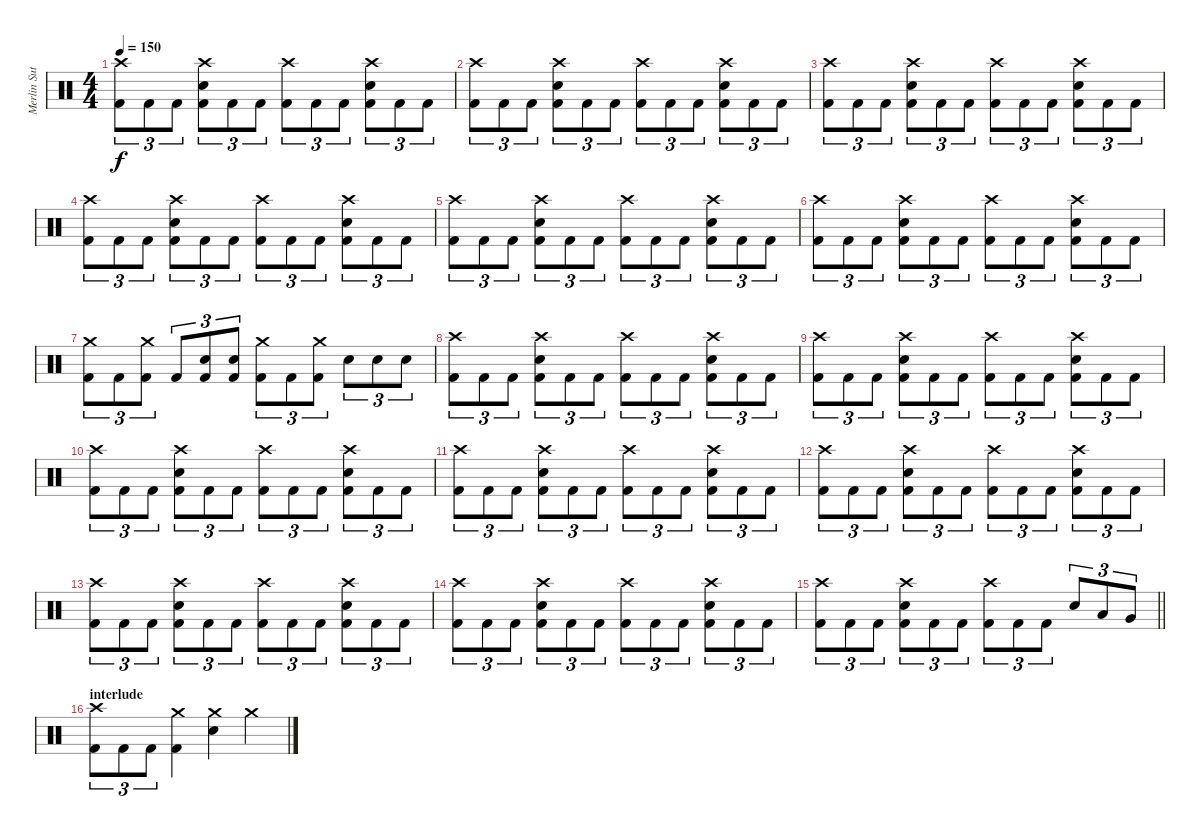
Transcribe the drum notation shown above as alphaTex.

\track ("Merlin Sutter" "Merlin Sut") {instrument percussion}
\staff {score}
\articulation defaults
\ts (4 4)
\tempo 150
\clef neutral
\ks c
("Crash high (hit)" "Kick (hit) 2").8{tu (3 2) dy f} "Kick (hit) 2".8{tu (3 2)} "Kick (hit) 2".8{tu (3 2)} ("Crash high (hit)" "Snare (hit) 2" "Kick (hit) 2").8{tu (3 2)} "Kick (hit) 2".8{tu (3 2)} "Kick (hit) 2".8{tu (3 2)} ("Crash high (hit)" "Kick (hit) 2").8{tu (3 2)} "Kick (hit) 2".8{tu (3 2)} "Kick (hit) 2".8{tu (3 2)} ("Crash high (hit)" "Snare (hit) 2" "Kick (hit) 2").8{tu (3 2)} "Kick (hit) 2".8{tu (3 2)} "Kick (hit) 2".8{tu (3 2)} |
("Crash high (hit)" "Kick (hit) 2").8{tu (3 2)} "Kick (hit) 2".8{tu (3 2)} "Kick (hit) 2".8{tu (3 2)} ("Crash high (hit)" "Snare (hit) 2" "Kick (hit) 2").8{tu (3 2)} "Kick (hit) 2".8{tu (3 2)} "Kick (hit) 2".8{tu (3 2)} ("Crash high (hit)" "Kick (hit) 2").8{tu (3 2)} "Kick (hit) 2".8{tu (3 2)} "Kick (hit) 2".8{tu (3 2)} ("Crash high (hit)" "Snare (hit) 2" "Kick (hit) 2").8{tu (3 2)} "Kick (hit) 2".8{tu (3 2)} "Kick (hit) 2".8{tu (3 2)} |
("Crash high (hit)" "Kick (hit) 2").8{tu (3 2)} "Kick (hit) 2".8{tu (3 2)} "Kick (hit) 2".8{tu (3 2)} ("Crash high (hit)" "Snare (hit) 2" "Kick (hit) 2").8{tu (3 2)} "Kick (hit) 2".8{tu (3 2)} "Kick (hit) 2".8{tu (3 2)} ("Crash high (hit)" "Kick (hit) 2").8{tu (3 2)} "Kick (hit) 2".8{tu (3 2)} "Kick (hit) 2".8{tu (3 2)} ("Crash high (hit)" "Snare (hit) 2" "Kick (hit) 2").8{tu (3 2)} "Kick (hit) 2".8{tu (3 2)} "Kick (hit) 2".8{tu (3 2)} |
("Crash high (hit)" "Kick (hit) 2").8{tu (3 2)} "Kick (hit) 2".8{tu (3 2)} "Kick (hit) 2".8{tu (3 2)} ("Crash high (hit)" "Snare (hit) 2" "Kick (hit) 2").8{tu (3 2)} "Kick (hit) 2".8{tu (3 2)} "Kick (hit) 2".8{tu (3 2)} ("Crash high (hit)" "Kick (hit) 2").8{tu (3 2)} "Kick (hit) 2".8{tu (3 2)} "Kick (hit) 2".8{tu (3 2)} ("Crash high (hit)" "Snare (hit) 2" "Kick (hit) 2").8{tu (3 2)} "Kick (hit) 2".8{tu (3 2)} "Kick (hit) 2".8{tu (3 2)} |
("Crash high (hit)" "Kick (hit) 2").8{tu (3 2)} "Kick (hit) 2".8{tu (3 2)} "Kick (hit) 2".8{tu (3 2)} ("Crash high (hit)" "Snare (hit) 2" "Kick (hit) 2").8{tu (3 2)} "Kick (hit) 2".8{tu (3 2)} "Kick (hit) 2".8{tu (3 2)} ("Crash high (hit)" "Kick (hit) 2").8{tu (3 2)} "Kick (hit) 2".8{tu (3 2)} "Kick (hit) 2".8{tu (3 2)} ("Crash high (hit)" "Snare (hit) 2" "Kick (hit) 2").8{tu (3 2)} "Kick (hit) 2".8{tu (3 2)} "Kick (hit) 2".8{tu (3 2)} |
("Crash high (hit)" "Kick (hit) 2").8{tu (3 2)} "Kick (hit) 2".8{tu (3 2)} "Kick (hit) 2".8{tu (3 2)} ("Crash high (hit)" "Snare (hit) 2" "Kick (hit) 2").8{tu (3 2)} "Kick (hit) 2".8{tu (3 2)} "Kick (hit) 2".8{tu (3 2)} ("Crash high (hit)" "Kick (hit) 2").8{tu (3 2)} "Kick (hit) 2".8{tu (3 2)} "Kick (hit) 2".8{tu (3 2)} ("Crash high (hit)" "Snare (hit) 2" "Kick (hit) 2").8{tu (3 2)} "Kick (hit) 2".8{tu (3 2)} "Kick (hit) 2".8{tu (3 2)} |
("Crash medium (hit)" "Kick (hit) 2").8{tu (3 2)} "Kick (hit) 2".8{tu (3 2)} ("Crash medium (hit)" "Kick (hit) 2").8{tu (3 2)} "Kick (hit) 2".8{tu (3 2)} ("Snare (hit) 2" "Kick (hit) 2").8{tu (3 2)} ("Snare (hit) 2" "Kick (hit) 2").8{tu (3 2)} ("Crash medium (hit)" "Kick (hit) 2").8{tu (3 2)} "Kick (hit) 2".8{tu (3 2)} ("Crash medium (hit)" "Kick (hit) 2").8{tu (3 2)} "Snare (hit) 2".8{tu (3 2)} "Snare (hit) 2".8{tu (3 2)} "Snare (hit) 2".8{tu (3 2)} |
("Crash high (hit)" "Kick (hit) 2").8{tu (3 2)} "Kick (hit) 2".8{tu (3 2)} "Kick (hit) 2".8{tu (3 2)} ("Crash high (hit)" "Snare (hit) 2" "Kick (hit) 2").8{tu (3 2)} "Kick (hit) 2".8{tu (3 2)} "Kick (hit) 2".8{tu (3 2)} ("Crash high (hit)" "Kick (hit) 2").8{tu (3 2)} "Kick (hit) 2".8{tu (3 2)} "Kick (hit) 2".8{tu (3 2)} ("Crash high (hit)" "Snare (hit) 2" "Kick (hit) 2").8{tu (3 2)} "Kick (hit) 2".8{tu (3 2)} "Kick (hit) 2".8{tu (3 2)} |
("Crash high (hit)" "Kick (hit) 2").8{tu (3 2)} "Kick (hit) 2".8{tu (3 2)} "Kick (hit) 2".8{tu (3 2)} ("Crash high (hit)" "Snare (hit) 2" "Kick (hit) 2").8{tu (3 2)} "Kick (hit) 2".8{tu (3 2)} "Kick (hit) 2".8{tu (3 2)} ("Crash high (hit)" "Kick (hit) 2").8{tu (3 2)} "Kick (hit) 2".8{tu (3 2)} "Kick (hit) 2".8{tu (3 2)} ("Crash high (hit)" "Snare (hit) 2" "Kick (hit) 2").8{tu (3 2)} "Kick (hit) 2".8{tu (3 2)} "Kick (hit) 2".8{tu (3 2)} |
("Crash high (hit)" "Kick (hit) 2").8{tu (3 2)} "Kick (hit) 2".8{tu (3 2)} "Kick (hit) 2".8{tu (3 2)} ("Crash high (hit)" "Snare (hit) 2" "Kick (hit) 2").8{tu (3 2)} "Kick (hit) 2".8{tu (3 2)} "Kick (hit) 2".8{tu (3 2)} ("Crash high (hit)" "Kick (hit) 2").8{tu (3 2)} "Kick (hit) 2".8{tu (3 2)} "Kick (hit) 2".8{tu (3 2)} ("Crash high (hit)" "Snare (hit) 2" "Kick (hit) 2").8{tu (3 2)} "Kick (hit) 2".8{tu (3 2)} "Kick (hit) 2".8{tu (3 2)} |
("Crash high (hit)" "Kick (hit) 2").8{tu (3 2)} "Kick (hit) 2".8{tu (3 2)} "Kick (hit) 2".8{tu (3 2)} ("Crash high (hit)" "Snare (hit) 2" "Kick (hit) 2").8{tu (3 2)} "Kick (hit) 2".8{tu (3 2)} "Kick (hit) 2".8{tu (3 2)} ("Crash high (hit)" "Kick (hit) 2").8{tu (3 2)} "Kick (hit) 2".8{tu (3 2)} "Kick (hit) 2".8{tu (3 2)} ("Crash high (hit)" "Snare (hit) 2" "Kick (hit) 2").8{tu (3 2)} "Kick (hit) 2".8{tu (3 2)} "Kick (hit) 2".8{tu (3 2)} |
("Crash high (hit)" "Kick (hit) 2").8{tu (3 2)} "Kick (hit) 2".8{tu (3 2)} "Kick (hit) 2".8{tu (3 2)} ("Crash high (hit)" "Snare (hit) 2" "Kick (hit) 2").8{tu (3 2)} "Kick (hit) 2".8{tu (3 2)} "Kick (hit) 2".8{tu (3 2)} ("Crash high (hit)" "Kick (hit) 2").8{tu (3 2)} "Kick (hit) 2".8{tu (3 2)} "Kick (hit) 2".8{tu (3 2)} ("Crash high (hit)" "Snare (hit) 2" "Kick (hit) 2").8{tu (3 2)} "Kick (hit) 2".8{tu (3 2)} "Kick (hit) 2".8{tu (3 2)} |
("Crash high (hit)" "Kick (hit) 2").8{tu (3 2)} "Kick (hit) 2".8{tu (3 2)} "Kick (hit) 2".8{tu (3 2)} ("Crash high (hit)" "Snare (hit) 2" "Kick (hit) 2").8{tu (3 2)} "Kick (hit) 2".8{tu (3 2)} "Kick (hit) 2".8{tu (3 2)} ("Crash high (hit)" "Kick (hit) 2").8{tu (3 2)} "Kick (hit) 2".8{tu (3 2)} "Kick (hit) 2".8{tu (3 2)} ("Crash high (hit)" "Snare (hit) 2" "Kick (hit) 2").8{tu (3 2)} "Kick (hit) 2".8{tu (3 2)} "Kick (hit) 2".8{tu (3 2)} |
("Crash high (hit)" "Kick (hit) 2").8{tu (3 2)} "Kick (hit) 2".8{tu (3 2)} "Kick (hit) 2".8{tu (3 2)} ("Crash high (hit)" "Snare (hit) 2" "Kick (hit) 2").8{tu (3 2)} "Kick (hit) 2".8{tu (3 2)} "Kick (hit) 2".8{tu (3 2)} ("Crash high (hit)" "Kick (hit) 2").8{tu (3 2)} "Kick (hit) 2".8{tu (3 2)} "Kick (hit) 2".8{tu (3 2)} ("Crash high (hit)" "Snare (hit) 2" "Kick (hit) 2").8{tu (3 2)} "Kick (hit) 2".8{tu (3 2)} "Kick (hit) 2".8{tu (3 2)} |
\barLineRight lightlight
("Crash high (hit)" "Kick (hit) 2").8{tu (3 2)} "Kick (hit) 2".8{tu (3 2)} "Kick (hit) 2".8{tu (3 2)} ("Crash high (hit)" "Snare (hit) 2" "Kick (hit) 2").8{tu (3 2)} "Kick (hit) 2".8{tu (3 2)} "Kick (hit) 2".8{tu (3 2)} ("Crash high (hit)" "Kick (hit) 2").8{tu (3 2)} "Kick (hit) 2".8{tu (3 2)} "Kick (hit) 2".8{tu (3 2)} "Snare (hit) 2".8{tu (3 2)} "Low Tom (hit)".8{tu (3 2)} "Very Low Tom (hit)".8{tu (3 2)} |
\section ("" "interlude")
("Crash high (hit)" "Kick (hit) 2").8{tu (3 2)} "Kick (hit) 2".8{tu (3 2)} "Kick (hit) 2".8{tu (3 2)} ("Crash medium (hit)" "Kick (hit) 2").4 ("Crash medium (hit)" "Snare (hit) 2").4 "Crash medium (hit)".4
